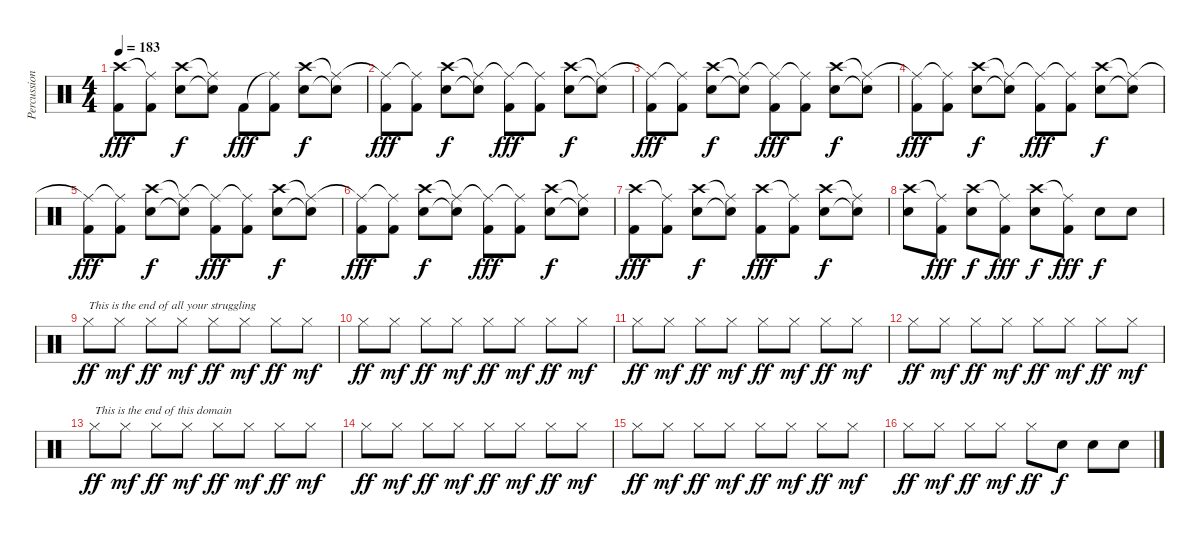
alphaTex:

\track ("Percussion" "Percussion") {instrument percussion}
\staff {score}
\articulation defaults
\ts (4 4)
\tempo 183
\clef neutral
\ks c
("Crash high (hit)"{t} "Kick (hit) 2").8{dy fff} ("Ride (middle)"{t} "Kick (hit) 2").8 ("Crash high (hit)" "Snare (hit) 2").8{dy f} ("Ride (middle)"{t} "Snare (hit)"{t}).8 "Kick (hit) 2".8{dy fff} ("Ride (middle)"{t} "Kick (hit) 2").8 ("Crash high (hit)" "Snare (hit) 2").8{dy f} ("Ride (middle)"{t} "Snare (hit)"{t}).8 |
("Ride (middle)"{t} "Kick (hit) 2").8{dy fff} ("Ride (middle)"{t} "Kick (hit) 2").8 ("Crash high (hit)" "Snare (hit) 2").8{dy f} ("Ride (middle)"{t} "Snare (hit)"{t}).8 ("Ride (middle)"{t} "Kick (hit) 2").8{dy fff} ("Ride (middle)"{t} "Kick (hit) 2").8 ("Crash high (hit)" "Snare (hit) 2").8{dy f} ("Ride (middle)"{t} "Snare (hit)"{t}).8 |
("Ride (middle)"{t} "Kick (hit) 2").8{dy fff} ("Ride (middle)"{t} "Kick (hit) 2").8 ("Crash high (hit)" "Snare (hit) 2").8{dy f} ("Ride (middle)"{t} "Snare (hit)"{t}).8 ("Ride (middle)"{t} "Kick (hit) 2").8{dy fff} ("Ride (middle)"{t} "Kick (hit) 2").8 ("Crash high (hit)" "Snare (hit) 2").8{dy f} ("Ride (middle)"{t} "Snare (hit)"{t}).8 |
("Ride (middle)"{t} "Kick (hit) 2").8{dy fff} ("Ride (middle)"{t} "Kick (hit) 2").8 ("Crash high (hit)" "Snare (hit) 2").8{dy f} ("Ride (middle)"{t} "Snare (hit)"{t}).8 ("Ride (middle)"{t} "Kick (hit) 2").8{dy fff} ("Ride (middle)"{t} "Kick (hit) 2").8 ("Crash high (hit)" "Snare (hit) 2").8{dy f} ("Ride (middle)"{t} "Snare (hit)"{t}).8 |
("Ride (middle)"{t} "Kick (hit) 2").8{dy fff} ("Ride (middle)"{t} "Kick (hit) 2").8 ("Crash high (hit)" "Snare (hit) 2").8{dy f} ("Ride (middle)"{t} "Snare (hit)"{t}).8 ("Ride (middle)"{t} "Kick (hit) 2").8{dy fff} ("Ride (middle)"{t} "Kick (hit) 2").8 ("Crash high (hit)" "Snare (hit) 2").8{dy f} ("Ride (middle)"{t} "Snare (hit)"{t}).8 |
("Ride (middle)"{t} "Kick (hit) 2").8{dy fff} ("Ride (middle)"{t} "Kick (hit) 2").8 ("Crash high (hit)" "Snare (hit) 2").8{dy f} ("Ride (middle)"{t} "Snare (hit)"{t}).8 ("Ride (middle)"{t} "Kick (hit) 2").8{dy fff} ("Ride (middle)"{t} "Kick (hit) 2").8 ("Crash high (hit)" "Snare (hit) 2").8{dy f} ("Ride (middle)"{t} "Snare (hit)"{t}).8 |
("Crash high (hit)" "Kick (hit) 2").8{dy fff} ("Ride (middle)"{t} "Kick (hit) 2").8 ("Crash high (hit)" "Snare (hit) 2").8{dy f} ("Ride (middle)"{t} "Snare (hit)"{t}).8 ("Crash high (hit)" "Kick (hit) 2").8{dy fff} ("Ride (middle)"{t} "Kick (hit) 2").8 ("Crash high (hit)" "Snare (hit) 2").8{dy f} ("Ride (middle)"{t} "Snare (hit)"{t}).8 |
("Crash high (hit)" "Snare (hit) 2").8 ("Ride (middle)"{t} "Kick (hit) 2").8{dy fff} ("Crash high (hit)" "Snare (hit) 2").8{dy f} ("Ride (middle)"{t} "Kick (hit) 2").8{dy fff} ("Crash high (hit)" "Snare (hit) 2").8{dy f} ("Ride (middle)"{t} "Kick (hit) 2").8{dy fff} "Snare (hit) 2".8{dy f} "Snare (hit) 2".8 |
"Hi-Hat (closed)".8{txt "This is the end of all your struggling" dy ff} "Hi-Hat (closed)".8{dy mf} "Hi-Hat (closed)".8{dy ff} "Hi-Hat (closed)".8{dy mf} "Hi-Hat (closed)".8{dy ff} "Hi-Hat (closed)".8{dy mf} "Hi-Hat (closed)".8{dy ff} "Hi-Hat (closed)".8{dy mf} |
"Hi-Hat (closed)".8{dy ff} "Hi-Hat (closed)".8{dy mf} "Hi-Hat (closed)".8{dy ff} "Hi-Hat (closed)".8{dy mf} "Hi-Hat (closed)".8{dy ff} "Hi-Hat (closed)".8{dy mf} "Hi-Hat (closed)".8{dy ff} "Hi-Hat (closed)".8{dy mf} |
"Hi-Hat (closed)".8{dy ff} "Hi-Hat (closed)".8{dy mf} "Hi-Hat (closed)".8{dy ff} "Hi-Hat (closed)".8{dy mf} "Hi-Hat (closed)".8{dy ff} "Hi-Hat (closed)".8{dy mf} "Hi-Hat (closed)".8{dy ff} "Hi-Hat (closed)".8{dy mf} |
"Hi-Hat (closed)".8{dy ff} "Hi-Hat (closed)".8{dy mf} "Hi-Hat (closed)".8{dy ff} "Hi-Hat (closed)".8{dy mf} "Hi-Hat (closed)".8{dy ff} "Hi-Hat (closed)".8{dy mf} "Hi-Hat (closed)".8{dy ff} "Hi-Hat (closed)".8{dy mf} |
"Hi-Hat (closed)".8{txt "This is the end of this domain" dy ff} "Hi-Hat (closed)".8{dy mf} "Hi-Hat (closed)".8{dy ff} "Hi-Hat (closed)".8{dy mf} "Hi-Hat (closed)".8{dy ff} "Hi-Hat (closed)".8{dy mf} "Hi-Hat (closed)".8{dy ff} "Hi-Hat (closed)".8{dy mf} |
"Hi-Hat (closed)".8{dy ff} "Hi-Hat (closed)".8{dy mf} "Hi-Hat (closed)".8{dy ff} "Hi-Hat (closed)".8{dy mf} "Hi-Hat (closed)".8{dy ff} "Hi-Hat (closed)".8{dy mf} "Hi-Hat (closed)".8{dy ff} "Hi-Hat (closed)".8{dy mf} |
"Hi-Hat (closed)".8{dy ff} "Hi-Hat (closed)".8{dy mf} "Hi-Hat (closed)".8{dy ff} "Hi-Hat (closed)".8{dy mf} "Hi-Hat (closed)".8{dy ff} "Hi-Hat (closed)".8{dy mf} "Hi-Hat (closed)".8{dy ff} "Hi-Hat (closed)".8{dy mf} |
"Hi-Hat (closed)".8{dy ff} "Hi-Hat (closed)".8{dy mf} "Hi-Hat (closed)".8{dy ff} "Hi-Hat (closed)".8{dy mf} "Hi-Hat (closed)".8{dy ff} "Snare (hit) 2".8{dy f} "Snare (hit) 2".8 "Snare (hit) 2".8
